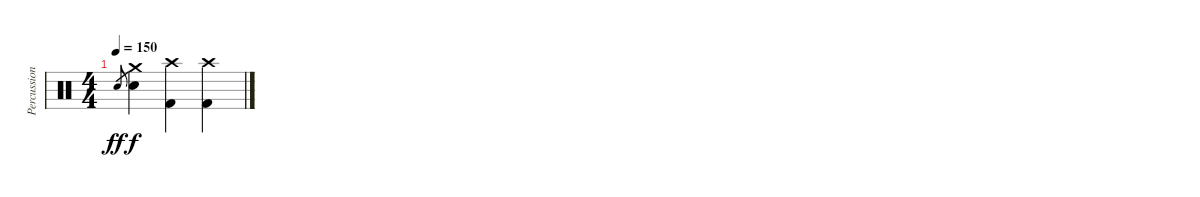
\track ("Percussion" "Percussion") {instrument percussion}
\staff {score}
\articulation defaults
\ts (4 4)
\tempo 150
\clef neutral
\ks c "Snare (hit) 2".8{gr dy ff}
("Crash medium (hit)" "Snare (hit) 2").4{dy f} ("Crash high (hit)" "Kick (hit) 2").4 ("Crash high (hit)" "Kick (hit) 2").4
